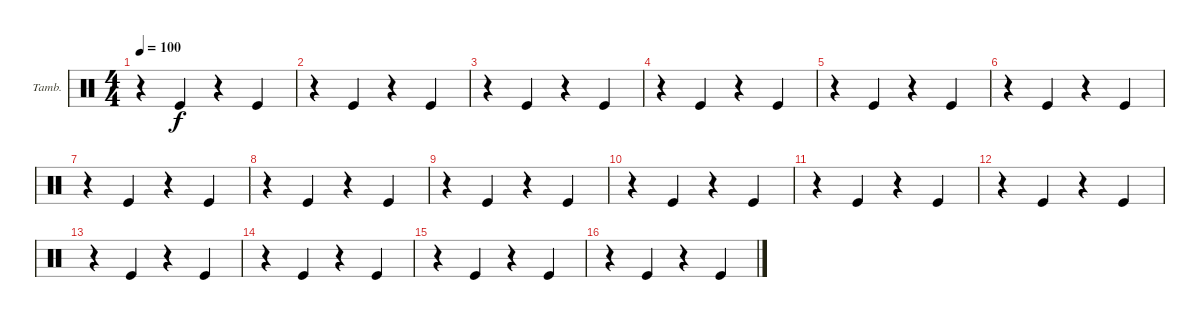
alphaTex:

\defaultSystemsLayout 4
\bracketExtendMode nobrackets
\firstSystemTrackNameOrientation horizontal
\otherSystemsTrackNameOrientation horizontal
\track ("Tambourine" "Tamb.") {instrument percussion}
\staff {score}
\articulation defaults
\ts (4 4)
\tempo 100
\clef neutral
\ks c
r.4{dy f} "Kick (hit)".4 r.4 "Kick (hit)".4 |
r.4 "Kick (hit)".4 r.4 "Kick (hit)".4 |
r.4 "Kick (hit)".4 r.4 "Kick (hit)".4 |
r.4 "Kick (hit)".4 r.4 "Kick (hit)".4 |
r.4 "Kick (hit)".4 r.4 "Kick (hit)".4 |
r.4 "Kick (hit)".4 r.4 "Kick (hit)".4 |
r.4 "Kick (hit)".4 r.4 "Kick (hit)".4 |
r.4 "Kick (hit)".4 r.4 "Kick (hit)".4 |
r.4 "Kick (hit)".4 r.4 "Kick (hit)".4 |
r.4 "Kick (hit)".4 r.4 "Kick (hit)".4 |
r.4 "Kick (hit)".4 r.4 "Kick (hit)".4 |
r.4 "Kick (hit)".4 r.4 "Kick (hit)".4 |
r.4 "Kick (hit)".4 r.4 "Kick (hit)".4 |
r.4 "Kick (hit)".4 r.4 "Kick (hit)".4 |
r.4 "Kick (hit)".4 r.4 "Kick (hit)".4 |
r.4 "Kick (hit)".4 r.4 "Kick (hit)".4
